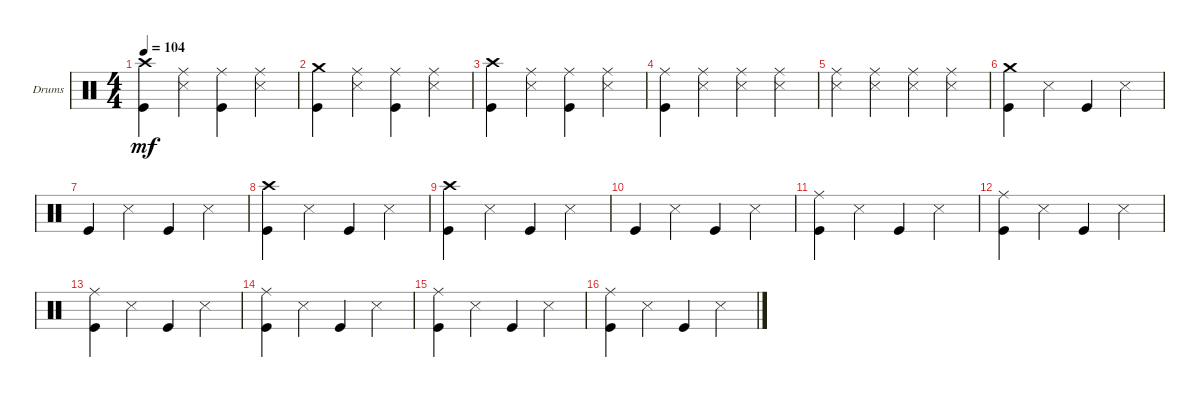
\bracketExtendMode groupsimilarinstruments
\firstSystemTrackNameOrientation horizontal
\otherSystemsTrackNameOrientation horizontal
\track ("Drumkit" "Drums") {instrument percussion}
\staff {score}
\articulation defaults
\ts (4 4)
\tempo 104
\clef neutral
\scale
0.333333
\ks c
("Kick (hit)" "Crash high (hit)").4{dy mf} ("Snare (side stick) 3" "Ride (middle)").4 ("Kick (hit)" "Ride (middle)").4 ("Snare (side stick) 3" "Ride (middle)").4 |
\scale
0.333333 ("Kick (hit)" "Crash medium (hit)").4 ("Snare (side stick) 3" "Ride (middle)").4 ("Kick (hit)" "Ride (middle)").4 ("Snare (side stick) 3" "Ride (middle)").4 |
\scale
0.333333 ("Kick (hit)" "Crash high (hit)").4 ("Snare (side stick) 3" "Ride (middle)").4 ("Kick (hit)" "Ride (middle)").4 ("Snare (side stick) 3" "Ride (middle)").4 |
\scale
0.333333 ("Kick (hit)" "Ride (middle)").4 ("Snare (side stick) 3" "Ride (middle)").4 ("Snare (side stick) 3" "Ride (middle)").4 ("Snare (side stick) 3" "Ride (middle)").4 |
\scale
0.333333 ("Snare (side stick) 3" "Ride (middle)").4 ("Snare (side stick) 3" "Ride (middle)").4 ("Snare (side stick) 3" "Ride (middle)").4 ("Snare (side stick) 3" "Ride (middle)").4 |
\scale
0.333333 ("Kick (hit)" "Crash medium (hit)").4 "Snare (side stick) 3".4 "Kick (hit)".4 "Snare (side stick) 3".4 |
\scale
0.333333 "Kick (hit)".4 "Snare (side stick) 3".4 "Kick (hit)".4 "Snare (side stick) 3".4 |
\scale
0.333333 ("Kick (hit)" "Crash high (hit)").4 "Snare (side stick) 3".4 "Kick (hit)".4 "Snare (side stick) 3".4 |
\scale
0.333333 ("Kick (hit)" "Crash high (hit)").4 "Snare (side stick) 3".4 "Kick (hit)".4 "Snare (side stick) 3".4 |
\scale
0.333333 "Kick (hit)".4 "Snare (side stick) 3".4 "Kick (hit)".4 "Snare (side stick) 3".4 |
\scale
0.333333 ("Kick (hit)" "Ride (middle)").4 "Snare (side stick) 3".4 "Kick (hit)".4 "Snare (side stick) 3".4 |
\scale
0.333333 ("Kick (hit)" "Ride (middle)").4 "Snare (side stick) 3".4 "Kick (hit)".4 "Snare (side stick) 3".4 |
\scale
0.333333 ("Kick (hit)" "Ride (middle)").4 "Snare (side stick) 3".4 "Kick (hit)".4 "Snare (side stick) 3".4 |
\scale
0.333333 ("Kick (hit)" "Ride (middle)").4 "Snare (side stick) 3".4 "Kick (hit)".4 "Snare (side stick) 3".4 |
\scale
0.333333 ("Kick (hit)" "Ride (middle)").4 "Snare (side stick) 3".4 "Kick (hit)".4 "Snare (side stick) 3".4 |
\scale
0.333333 ("Kick (hit)" "Ride (middle)").4 "Snare (side stick) 3".4 "Kick (hit)".4 "Snare (side stick) 3".4
